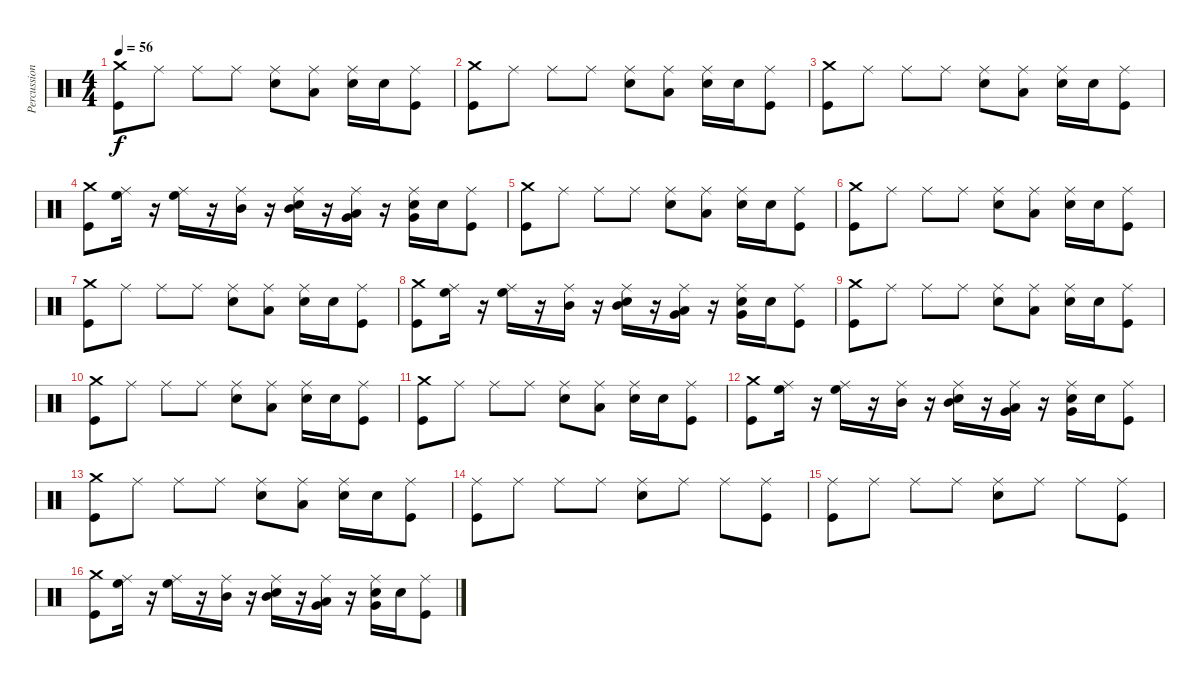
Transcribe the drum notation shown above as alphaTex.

\track ("Percussion" "Percussion") {instrument percussion}
\staff {score}
\articulation defaults
\ts (4 4)
\tempo 56
\clef neutral
\ks c
("Crash medium (hit)" "Kick (hit)").8{dy f} "Ride (middle)".8 "Ride (middle)".8 "Ride (middle)".8 ("Snare (hit) 2" "Ride (middle)").8 ("Low Floor Tom (hit)" "Ride (middle)").8 ("Snare (hit) 2" "Ride (middle)").16 "Snare (hit) 2".16 ("Kick (hit)" "Ride (middle)").8 |
("Crash medium (hit)" "Kick (hit)").8 "Ride (middle)".8 "Ride (middle)".8 "Ride (middle)".8 ("Snare (hit) 2" "Ride (middle)").8 ("Low Floor Tom (hit)" "Ride (middle)").8 ("Snare (hit) 2" "Ride (middle)").16 "Snare (hit) 2".16 ("Kick (hit)" "Ride (middle)").8 |
("Crash medium (hit)" "Kick (hit)").8 "Ride (middle)".8 "Ride (middle)".8 "Ride (middle)".8 ("Snare (hit) 2" "Ride (middle)").8 ("Low Floor Tom (hit)" "Ride (middle)").8 ("Snare (hit) 2" "Ride (middle)").16 "Snare (hit) 2".16 ("Kick (hit)" "Ride (middle)").8 |
("Crash medium (hit)" "Kick (hit)").8 ("High Floor Tom (hit)" "Ride (middle)").16 r.16 ("High Floor Tom (hit)" "Ride (middle)").16 r.16 ("Mid Tom (hit)" "Ride (middle)").16 r.16 ("Mid Tom (hit)" "Snare (hit) 2" "Ride (middle)").16 r.16 ("Very Low Tom (hit)" "Low Floor Tom (hit)" "Ride (middle)").16 r.16 ("Very Low Tom (hit)" "Snare (hit) 2" "Ride (middle)").16 "Snare (hit) 2".16 ("Kick (hit)" "Ride (middle)").8 |
("Crash medium (hit)" "Kick (hit)").8 "Ride (middle)".8 "Ride (middle)".8 "Ride (middle)".8 ("Snare (hit) 2" "Ride (middle)").8 ("Low Floor Tom (hit)" "Ride (middle)").8 ("Snare (hit) 2" "Ride (middle)").16 "Snare (hit) 2".16 ("Kick (hit)" "Ride (middle)").8 |
("Crash medium (hit)" "Kick (hit)").8 "Ride (middle)".8 "Ride (middle)".8 "Ride (middle)".8 ("Snare (hit) 2" "Ride (middle)").8 ("Low Floor Tom (hit)" "Ride (middle)").8 ("Snare (hit) 2" "Ride (middle)").16 "Snare (hit) 2".16 ("Kick (hit)" "Ride (middle)").8 |
("Crash medium (hit)" "Kick (hit)").8 "Ride (middle)".8 "Ride (middle)".8 "Ride (middle)".8 ("Snare (hit) 2" "Ride (middle)").8 ("Low Floor Tom (hit)" "Ride (middle)").8 ("Snare (hit) 2" "Ride (middle)").16 "Snare (hit) 2".16 ("Kick (hit)" "Ride (middle)").8 |
("Crash medium (hit)" "Kick (hit)").8 ("High Floor Tom (hit)" "Ride (middle)").16 r.16 ("High Floor Tom (hit)" "Ride (middle)").16 r.16 ("Mid Tom (hit)" "Ride (middle)").16 r.16 ("Mid Tom (hit)" "Snare (hit) 2" "Ride (middle)").16 r.16 ("Very Low Tom (hit)" "Low Floor Tom (hit)" "Ride (middle)").16 r.16 ("Very Low Tom (hit)" "Snare (hit) 2" "Ride (middle)").16 "Snare (hit) 2".16 ("Kick (hit)" "Ride (middle)").8 |
("Crash medium (hit)" "Kick (hit)").8 "Ride (middle)".8 "Ride (middle)".8 "Ride (middle)".8 ("Snare (hit) 2" "Ride (middle)").8 ("Low Floor Tom (hit)" "Ride (middle)").8 ("Snare (hit) 2" "Ride (middle)").16 "Snare (hit) 2".16 ("Kick (hit)" "Ride (middle)").8 |
("Crash medium (hit)" "Kick (hit)").8 "Ride (middle)".8 "Ride (middle)".8 "Ride (middle)".8 ("Snare (hit) 2" "Ride (middle)").8 ("Low Floor Tom (hit)" "Ride (middle)").8 ("Snare (hit) 2" "Ride (middle)").16 "Snare (hit) 2".16 ("Kick (hit)" "Ride (middle)").8 |
("Crash medium (hit)" "Kick (hit)").8 "Ride (middle)".8 "Ride (middle)".8 "Ride (middle)".8 ("Snare (hit) 2" "Ride (middle)").8 ("Low Floor Tom (hit)" "Ride (middle)").8 ("Snare (hit) 2" "Ride (middle)").16 "Snare (hit) 2".16 ("Kick (hit)" "Ride (middle)").8 |
("Crash medium (hit)" "Kick (hit)").8 ("High Floor Tom (hit)" "Ride (middle)").16 r.16 ("High Floor Tom (hit)" "Ride (middle)").16 r.16 ("Mid Tom (hit)" "Ride (middle)").16 r.16 ("Mid Tom (hit)" "Snare (hit) 2" "Ride (middle)").16 r.16 ("Very Low Tom (hit)" "Low Floor Tom (hit)" "Ride (middle)").16 r.16 ("Very Low Tom (hit)" "Snare (hit) 2" "Ride (middle)").16 "Snare (hit) 2".16 ("Kick (hit)" "Ride (middle)").8 |
("Crash medium (hit)" "Kick (hit)").8 "Ride (middle)".8 "Ride (middle)".8 "Ride (middle)".8 ("Snare (hit) 2" "Ride (middle)").8 ("Low Floor Tom (hit)" "Ride (middle)").8 ("Snare (hit) 2" "Ride (middle)").16 "Snare (hit) 2".16 ("Kick (hit)" "Ride (middle)").8 |
("Ride (middle)" "Kick (hit)").8 "Ride (middle)".8 "Ride (middle)".8 "Ride (middle)".8 ("Snare (hit) 2" "Ride (middle)").8 "Ride (middle)".8 "Ride (middle)".8 ("Kick (hit)" "Ride (middle)").8 |
("Ride (middle)" "Kick (hit)").8 "Ride (middle)".8 "Ride (middle)".8 "Ride (middle)".8 ("Snare (hit) 2" "Ride (middle)").8 "Ride (middle)".8 "Ride (middle)".8 ("Kick (hit)" "Ride (middle)").8 |
("Crash medium (hit)" "Kick (hit)").8 ("High Floor Tom (hit)" "Ride (middle)").16 r.16 ("High Floor Tom (hit)" "Ride (middle)").16 r.16 ("Mid Tom (hit)" "Ride (middle)").16 r.16 ("Mid Tom (hit)" "Snare (hit) 2" "Ride (middle)").16 r.16 ("Very Low Tom (hit)" "Low Floor Tom (hit)" "Ride (middle)").16 r.16 ("Very Low Tom (hit)" "Snare (hit) 2" "Ride (middle)").16 "Snare (hit) 2".16 ("Kick (hit)" "Ride (middle)").8
